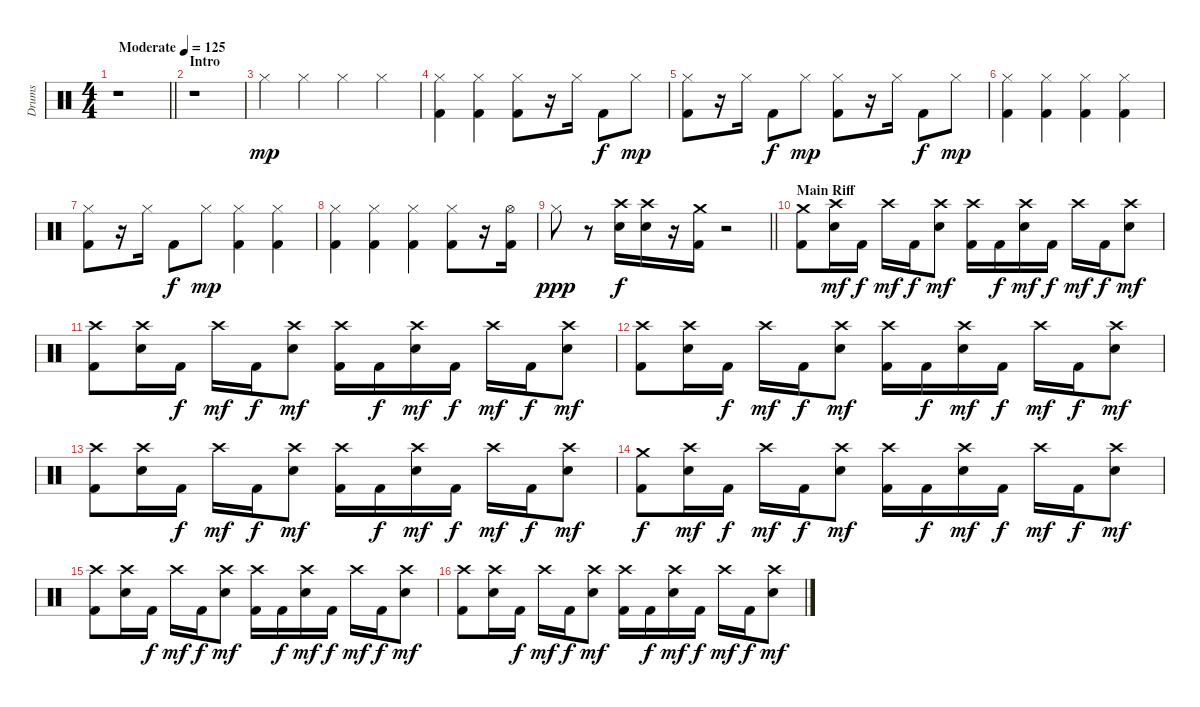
\track ("Drums" "Drums") {instrument percussion}
\staff {score}
\articulation defaults
\ts (4 4)
\tempo (125 "Moderate")
\clef neutral
\barLineRight lightlight
\ks c
r.1{dy mp} |
\section ("" "Intro")
r.1 |
"Hi-Hat (closed)".4 "Hi-Hat (closed)".4 "Hi-Hat (closed)".4 "Hi-Hat (closed)".4 |
("Hi-Hat (closed)" "Kick (hit) 2").4 ("Hi-Hat (closed)" "Kick (hit) 2").4 ("Hi-Hat (closed)" "Kick (hit) 2").8 r.16 "Hi-Hat (closed)".16 "Kick (hit) 2".8{dy f} "Hi-Hat (closed)".8{dy mp} |
("Hi-Hat (closed)" "Kick (hit) 2").8 r.16 "Hi-Hat (closed)".16 "Kick (hit) 2".8{dy f} "Hi-Hat (closed)".8{dy mp} ("Hi-Hat (closed)" "Kick (hit) 2").8 r.16 "Hi-Hat (closed)".16 "Kick (hit) 2".8{dy f} "Hi-Hat (closed)".8{dy mp} |
("Hi-Hat (closed)" "Kick (hit) 2").4 ("Hi-Hat (closed)" "Kick (hit) 2").4 ("Hi-Hat (closed)" "Kick (hit) 2").4 ("Hi-Hat (closed)" "Kick (hit) 2").4 |
("Hi-Hat (closed)" "Kick (hit) 2").8 r.16 "Hi-Hat (closed)".16 "Kick (hit) 2".8{dy f} "Hi-Hat (closed)".8{dy mp} ("Hi-Hat (closed)" "Kick (hit) 2").4 ("Hi-Hat (closed)" "Kick (hit) 2").4 |
("Hi-Hat (closed)" "Kick (hit) 2").4 ("Hi-Hat (closed)" "Kick (hit) 2").4 ("Hi-Hat (closed)" "Kick (hit) 2").4 ("Hi-Hat (closed)" "Kick (hit) 2").8 r.16 ("Hi-Hat (open)" "Kick (hit) 2").16 |
\barLineRight lightlight "Hi-Hat (closed)".8{dy ppp}
r.8 ("Crash high (hit)" "Snare (hit) 2").16{dy f} ("Crash high (hit)" "Snare (hit) 2").16 r.16 ("Crash medium (hit)" "Kick (hit) 2").16 r.2 |
\section ("" "Main Riff")
("Crash medium (hit)" "Kick (hit) 2").8 ("Crash high (hit)" "Snare (hit) 2").16{dy mf} "Kick (hit) 2".16{dy f} "Crash high (hit)".16{dy mf} "Kick (hit) 2".16{dy f} ("Crash high (hit)" "Snare (hit) 2").8{dy mf} ("Crash high (hit)" "Kick (hit) 2").16 "Kick (hit) 2".16{dy f} ("Crash high (hit)" "Snare (hit) 2").16{dy mf} "Kick (hit) 2".16{dy f} "Crash high (hit)".16{dy mf} "Kick (hit) 2".16{dy f} ("Crash high (hit)" "Snare (hit) 2").8{dy mf} |
("Crash high (hit)" "Kick (hit) 2").8 ("Crash high (hit)" "Snare (hit) 2").16 "Kick (hit) 2".16{dy f} "Crash high (hit)".16{dy mf} "Kick (hit) 2".16{dy f} ("Crash high (hit)" "Snare (hit) 2").8{dy mf} ("Crash high (hit)" "Kick (hit) 2").16 "Kick (hit) 2".16{dy f} ("Crash high (hit)" "Snare (hit) 2").16{dy mf} "Kick (hit) 2".16{dy f} "Crash high (hit)".16{dy mf} "Kick (hit) 2".16{dy f} ("Crash high (hit)" "Snare (hit) 2").8{dy mf} |
("Crash high (hit)" "Kick (hit) 2").8 ("Crash high (hit)" "Snare (hit) 2").16 "Kick (hit) 2".16{dy f} "Crash high (hit)".16{dy mf} "Kick (hit) 2".16{dy f} ("Crash high (hit)" "Snare (hit) 2").8{dy mf} ("Crash high (hit)" "Kick (hit) 2").16 "Kick (hit) 2".16{dy f} ("Crash high (hit)" "Snare (hit) 2").16{dy mf} "Kick (hit) 2".16{dy f} "Crash high (hit)".16{dy mf} "Kick (hit) 2".16{dy f} ("Crash high (hit)" "Snare (hit) 2").8{dy mf} |
("Crash high (hit)" "Kick (hit) 2").8 ("Crash high (hit)" "Snare (hit) 2").16 "Kick (hit) 2".16{dy f} "Crash high (hit)".16{dy mf} "Kick (hit) 2".16{dy f} ("Crash high (hit)" "Snare (hit) 2").8{dy mf} ("Crash high (hit)" "Kick (hit) 2").16 "Kick (hit) 2".16{dy f} ("Crash high (hit)" "Snare (hit) 2").16{dy mf} "Kick (hit) 2".16{dy f} "Crash high (hit)".16{dy mf} "Kick (hit) 2".16{dy f} ("Crash high (hit)" "Snare (hit) 2").8{dy mf} |
("Crash medium (hit)" "Kick (hit) 2").8{dy f} ("Crash high (hit)" "Snare (hit) 2").16{dy mf} "Kick (hit) 2".16{dy f} "Crash high (hit)".16{dy mf} "Kick (hit) 2".16{dy f} ("Crash high (hit)" "Snare (hit) 2").8{dy mf} ("Crash high (hit)" "Kick (hit) 2").16 "Kick (hit) 2".16{dy f} ("Crash high (hit)" "Snare (hit) 2").16{dy mf} "Kick (hit) 2".16{dy f} "Crash high (hit)".16{dy mf} "Kick (hit) 2".16{dy f} ("Crash high (hit)" "Snare (hit) 2").8{dy mf} |
("Crash high (hit)" "Kick (hit) 2").8 ("Crash high (hit)" "Snare (hit) 2").16 "Kick (hit) 2".16{dy f} "Crash high (hit)".16{dy mf} "Kick (hit) 2".16{dy f} ("Crash high (hit)" "Snare (hit) 2").8{dy mf} ("Crash high (hit)" "Kick (hit) 2").16 "Kick (hit) 2".16{dy f} ("Crash high (hit)" "Snare (hit) 2").16{dy mf} "Kick (hit) 2".16{dy f} "Crash high (hit)".16{dy mf} "Kick (hit) 2".16{dy f} ("Crash high (hit)" "Snare (hit) 2").8{dy mf} |
("Crash high (hit)" "Kick (hit) 2").8 ("Crash high (hit)" "Snare (hit) 2").16 "Kick (hit) 2".16{dy f} "Crash high (hit)".16{dy mf} "Kick (hit) 2".16{dy f} ("Crash high (hit)" "Snare (hit) 2").8{dy mf} ("Crash high (hit)" "Kick (hit) 2").16 "Kick (hit) 2".16{dy f} ("Crash high (hit)" "Snare (hit) 2").16{dy mf} "Kick (hit) 2".16{dy f} "Crash high (hit)".16{dy mf} "Kick (hit) 2".16{dy f} ("Crash high (hit)" "Snare (hit) 2").8{dy mf}
